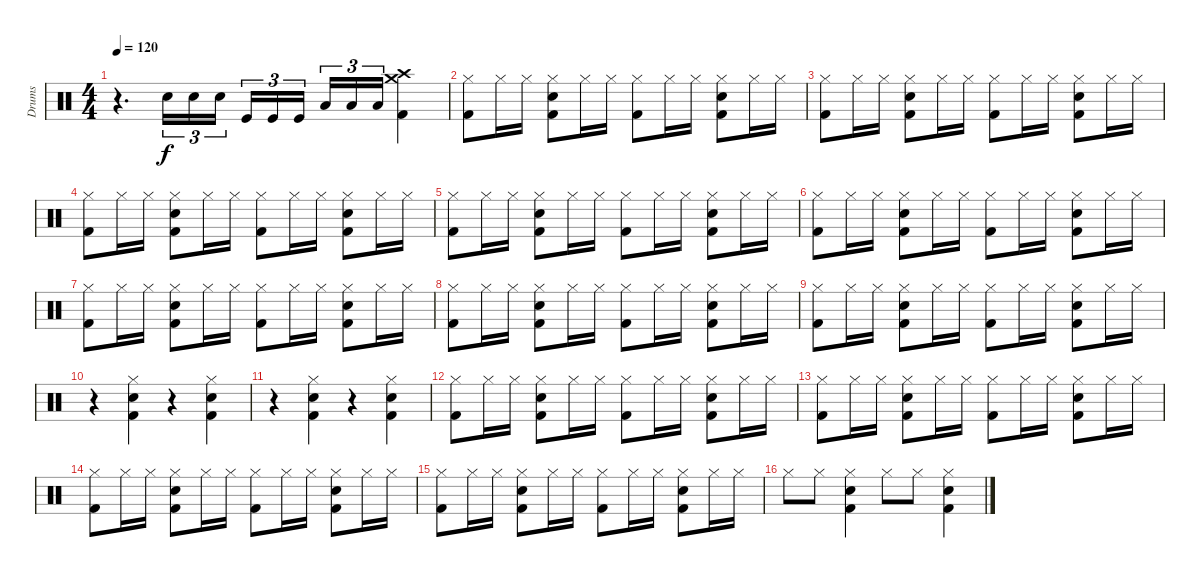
\track ("Drums" "Drums") {instrument percussion}
\staff {score}
\articulation defaults
\ts (4 4)
\tempo 120
\clef neutral
\ks c
r.4{d dy f} "Snare (hit) 2".16{tu (3 2)} "Snare (hit) 2".16{tu (3 2)} "Snare (hit) 2".16{tu (3 2)} "Kick (hit)".16{tu (3 2)} "Kick (hit)".16{tu (3 2)} "Kick (hit)".16{tu (3 2)} "Low Tom (hit)".16{tu (3 2)} "Low Tom (hit)".16{tu (3 2)} "Low Tom (hit)".16{tu (3 2)} ("Crash high (hit)" "Crash medium (hit)" "Kick (hit) 2").4 |
("Hi-Hat (closed)" "Kick (hit) 2").8 "Hi-Hat (closed)".16 "Hi-Hat (closed)".16 ("Hi-Hat (closed)" "Snare (hit) 2" "Kick (hit) 2").8 "Hi-Hat (closed)".16 "Hi-Hat (closed)".16 ("Hi-Hat (closed)" "Kick (hit) 2").8 "Hi-Hat (closed)".16 "Hi-Hat (closed)".16 ("Hi-Hat (closed)" "Snare (hit) 2" "Kick (hit) 2").8 "Hi-Hat (closed)".16 "Hi-Hat (closed)".16 |
("Hi-Hat (closed)" "Kick (hit) 2").8 "Hi-Hat (closed)".16 "Hi-Hat (closed)".16 ("Hi-Hat (closed)" "Snare (hit) 2" "Kick (hit) 2").8 "Hi-Hat (closed)".16 "Hi-Hat (closed)".16 ("Hi-Hat (closed)" "Kick (hit) 2").8 "Hi-Hat (closed)".16 "Hi-Hat (closed)".16 ("Hi-Hat (closed)" "Snare (hit) 2" "Kick (hit) 2").8 "Hi-Hat (closed)".16 "Hi-Hat (closed)".16 |
("Hi-Hat (closed)" "Kick (hit) 2").8 "Hi-Hat (closed)".16 "Hi-Hat (closed)".16 ("Hi-Hat (closed)" "Snare (hit) 2" "Kick (hit) 2").8 "Hi-Hat (closed)".16 "Hi-Hat (closed)".16 ("Hi-Hat (closed)" "Kick (hit) 2").8 "Hi-Hat (closed)".16 "Hi-Hat (closed)".16 ("Hi-Hat (closed)" "Snare (hit) 2" "Kick (hit) 2").8 "Hi-Hat (closed)".16 "Hi-Hat (closed)".16 |
("Hi-Hat (closed)" "Kick (hit) 2").8 "Hi-Hat (closed)".16 "Hi-Hat (closed)".16 ("Hi-Hat (closed)" "Snare (hit) 2" "Kick (hit) 2").8 "Hi-Hat (closed)".16 "Hi-Hat (closed)".16 ("Hi-Hat (closed)" "Kick (hit) 2").8 "Hi-Hat (closed)".16 "Hi-Hat (closed)".16 ("Hi-Hat (closed)" "Snare (hit) 2" "Kick (hit) 2").8 "Hi-Hat (closed)".16 "Hi-Hat (closed)".16 |
("Hi-Hat (closed)" "Kick (hit) 2").8 "Hi-Hat (closed)".16 "Hi-Hat (closed)".16 ("Hi-Hat (closed)" "Snare (hit) 2" "Kick (hit) 2").8 "Hi-Hat (closed)".16 "Hi-Hat (closed)".16 ("Hi-Hat (closed)" "Kick (hit) 2").8 "Hi-Hat (closed)".16 "Hi-Hat (closed)".16 ("Hi-Hat (closed)" "Snare (hit) 2" "Kick (hit) 2").8 "Hi-Hat (closed)".16 "Hi-Hat (closed)".16 |
("Hi-Hat (closed)" "Kick (hit) 2").8 "Hi-Hat (closed)".16 "Hi-Hat (closed)".16 ("Hi-Hat (closed)" "Snare (hit) 2" "Kick (hit) 2").8 "Hi-Hat (closed)".16 "Hi-Hat (closed)".16 ("Hi-Hat (closed)" "Kick (hit) 2").8 "Hi-Hat (closed)".16 "Hi-Hat (closed)".16 ("Hi-Hat (closed)" "Snare (hit) 2" "Kick (hit) 2").8 "Hi-Hat (closed)".16 "Hi-Hat (closed)".16 |
("Hi-Hat (closed)" "Kick (hit) 2").8 "Hi-Hat (closed)".16 "Hi-Hat (closed)".16 ("Hi-Hat (closed)" "Snare (hit) 2" "Kick (hit) 2").8 "Hi-Hat (closed)".16 "Hi-Hat (closed)".16 ("Hi-Hat (closed)" "Kick (hit) 2").8 "Hi-Hat (closed)".16 "Hi-Hat (closed)".16 ("Hi-Hat (closed)" "Snare (hit) 2" "Kick (hit) 2").8 "Hi-Hat (closed)".16 "Hi-Hat (closed)".16 |
("Hi-Hat (closed)" "Kick (hit) 2").8 "Hi-Hat (closed)".16 "Hi-Hat (closed)".16 ("Hi-Hat (closed)" "Snare (hit) 2" "Kick (hit) 2").8 "Hi-Hat (closed)".16 "Hi-Hat (closed)".16 ("Hi-Hat (closed)" "Kick (hit) 2").8 "Hi-Hat (closed)".16 "Hi-Hat (closed)".16 ("Hi-Hat (closed)" "Snare (hit) 2" "Kick (hit) 2").8 "Hi-Hat (closed)".16 "Hi-Hat (closed)".16 |
r.4 ("Hi-Hat (closed)" "Snare (hit) 2" "Kick (hit) 2").4 r.4 ("Hi-Hat (closed)" "Snare (hit) 2" "Kick (hit) 2").4 |
r.4 ("Hi-Hat (closed)" "Snare (hit) 2" "Kick (hit) 2").4 r.4 ("Hi-Hat (closed)" "Snare (hit) 2" "Kick (hit) 2").4 |
("Hi-Hat (closed)" "Kick (hit) 2").8 "Hi-Hat (closed)".16 "Hi-Hat (closed)".16 ("Hi-Hat (closed)" "Snare (hit) 2" "Kick (hit) 2").8 "Hi-Hat (closed)".16 "Hi-Hat (closed)".16 ("Hi-Hat (closed)" "Kick (hit) 2").8 "Hi-Hat (closed)".16 "Hi-Hat (closed)".16 ("Hi-Hat (closed)" "Snare (hit) 2" "Kick (hit) 2").8 "Hi-Hat (closed)".16 "Hi-Hat (closed)".16 |
("Hi-Hat (closed)" "Kick (hit) 2").8 "Hi-Hat (closed)".16 "Hi-Hat (closed)".16 ("Hi-Hat (closed)" "Snare (hit) 2" "Kick (hit) 2").8 "Hi-Hat (closed)".16 "Hi-Hat (closed)".16 ("Hi-Hat (closed)" "Kick (hit) 2").8 "Hi-Hat (closed)".16 "Hi-Hat (closed)".16 ("Hi-Hat (closed)" "Snare (hit) 2" "Kick (hit) 2").8 "Hi-Hat (closed)".16 "Hi-Hat (closed)".16 |
("Hi-Hat (closed)" "Kick (hit) 2").8 "Hi-Hat (closed)".16 "Hi-Hat (closed)".16 ("Hi-Hat (closed)" "Snare (hit) 2" "Kick (hit) 2").8 "Hi-Hat (closed)".16 "Hi-Hat (closed)".16 ("Hi-Hat (closed)" "Kick (hit) 2").8 "Hi-Hat (closed)".16 "Hi-Hat (closed)".16 ("Hi-Hat (closed)" "Snare (hit) 2" "Kick (hit) 2").8 "Hi-Hat (closed)".16 "Hi-Hat (closed)".16 |
("Hi-Hat (closed)" "Kick (hit) 2").8 "Hi-Hat (closed)".16 "Hi-Hat (closed)".16 ("Hi-Hat (closed)" "Snare (hit) 2" "Kick (hit) 2").8 "Hi-Hat (closed)".16 "Hi-Hat (closed)".16 ("Hi-Hat (closed)" "Kick (hit) 2").8 "Hi-Hat (closed)".16 "Hi-Hat (closed)".16 ("Hi-Hat (closed)" "Snare (hit) 2" "Kick (hit) 2").8 "Hi-Hat (closed)".16 "Hi-Hat (closed)".16 |
"Hi-Hat (closed)".8 "Hi-Hat (closed)".8 ("Hi-Hat (closed)" "Snare (hit) 2" "Kick (hit) 2").4 "Hi-Hat (closed)".8 "Hi-Hat (closed)".8 ("Hi-Hat (closed)" "Snare (hit) 2" "Kick (hit) 2").4
